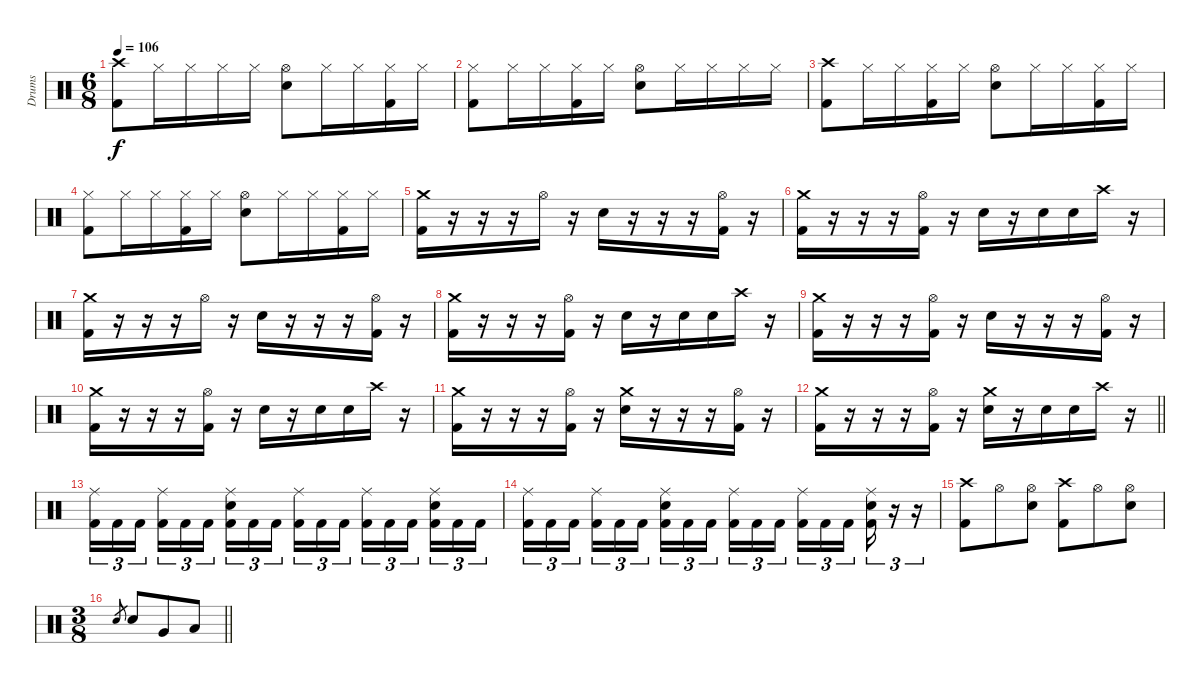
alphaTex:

\track ("Drums" "Drums") {instrument percussion}
\staff {score}
\articulation defaults
\ts (6 8)
\tempo 106
\clef neutral
\ks aminor
("Crash high (hit)" "Kick (hit) 2").8{dy f} "Hi-Hat (closed)".16 "Hi-Hat (closed)".16 "Hi-Hat (closed)".16 "Hi-Hat (closed)".16 ("Hi-Hat (open)" "Electric Snare (hit)").8 "Hi-Hat (closed)".16 "Hi-Hat (closed)".16 ("Hi-Hat (closed)" "Kick (hit) 2").16 "Hi-Hat (closed)".16 |
("Hi-Hat (closed)" "Kick (hit) 2").8 "Hi-Hat (closed)".16 "Hi-Hat (closed)".16 ("Hi-Hat (closed)" "Kick (hit) 2").16 "Hi-Hat (closed)".16 ("Hi-Hat (open)" "Electric Snare (hit)").8 "Hi-Hat (closed)".16 "Hi-Hat (closed)".16 "Hi-Hat (closed)".16 "Hi-Hat (closed)".16 |
("Crash high (hit)" "Kick (hit) 2").8 "Hi-Hat (closed)".16 "Hi-Hat (closed)".16 ("Hi-Hat (closed)" "Kick (hit) 2").16 "Hi-Hat (closed)".16 ("Hi-Hat (open)" "Electric Snare (hit)").8 "Hi-Hat (closed)".16 "Hi-Hat (closed)".16 ("Hi-Hat (closed)" "Kick (hit) 2").16 "Hi-Hat (closed)".16 |
("Hi-Hat (closed)" "Kick (hit) 2").8 "Hi-Hat (closed)".16 "Hi-Hat (closed)".16 ("Hi-Hat (closed)" "Kick (hit) 2").16 "Hi-Hat (closed)".16 ("Hi-Hat (open)" "Electric Snare (hit)").8 "Hi-Hat (closed)".16 "Hi-Hat (closed)".16 ("Hi-Hat (closed)" "Kick (hit) 2").16 "Hi-Hat (closed)".16 |
\section ("" "")
("Crash medium (hit)" "Kick (hit) 2").16 r.16 r.16 r.16 "Hi-Hat (open)".16 r.16 "Electric Snare (hit)".16 r.16 r.16 r.16 ("Hi-Hat (open)" "Kick (hit) 2").16 r.16 |
("Crash medium (hit)" "Kick (hit) 2").16 r.16 r.16 r.16 ("Hi-Hat (open)" "Kick (hit) 2").16 r.16 "Electric Snare (hit)".16 r.16 "Electric Snare (hit)".16 "Electric Snare (hit)".16 "Crash high (hit)".16 r.16 |
("Crash medium (hit)" "Kick (hit) 2").16 r.16 r.16 r.16 "Hi-Hat (open)".16 r.16 "Electric Snare (hit)".16 r.16 r.16 r.16 ("Hi-Hat (open)" "Kick (hit) 2").16 r.16 |
("Crash medium (hit)" "Kick (hit) 2").16 r.16 r.16 r.16 ("Hi-Hat (open)" "Kick (hit) 2").16 r.16 "Electric Snare (hit)".16 r.16 "Electric Snare (hit)".16 "Electric Snare (hit)".16 "Crash high (hit)".16 r.16 |
\section ("" "")
("Crash medium (hit)" "Kick (hit) 2").16 r.16 r.16 r.16 ("Hi-Hat (open)" "Kick (hit) 2").16 r.16 "Electric Snare (hit)".16 r.16 r.16 r.16 ("Hi-Hat (open)" "Kick (hit) 2").16 r.16 |
("Crash medium (hit)" "Kick (hit) 2").16 r.16 r.16 r.16 ("Hi-Hat (open)" "Kick (hit) 2").16 r.16 "Electric Snare (hit)".16 r.16 "Electric Snare (hit)".16 "Electric Snare (hit)".16 "Crash high (hit)".16 r.16 |
("Crash medium (hit)" "Kick (hit) 2").16 r.16 r.16 r.16 ("Hi-Hat (open)" "Kick (hit) 2").16 r.16 ("Crash medium (hit)" "Electric Snare (hit)").16 r.16 r.16 r.16 ("Hi-Hat (open)" "Kick (hit) 2").16 r.16 |
\barLineRight lightlight
("Crash medium (hit)" "Kick (hit) 2").16 r.16 r.16 r.16 ("Hi-Hat (open)" "Kick (hit) 2").16 r.16 ("Crash medium (hit)" "Electric Snare (hit)").16 r.16 "Electric Snare (hit)".16 "Electric Snare (hit)".16 "Crash high (hit)".16 r.16 |
\section ("" "")
("Ride (middle)" "Kick (hit) 2").16{tu (3 2)} "Kick (hit) 2".16{tu (3 2)} "Kick (hit) 2".16{tu (3 2)} ("Ride (middle)" "Kick (hit) 2").16{tu (3 2)} "Kick (hit) 2".16{tu (3 2)} "Kick (hit) 2".16{tu (3 2)} ("Ride (middle)" "Electric Snare (hit)" "Kick (hit) 2").16{tu (3 2)} "Kick (hit) 2".16{tu (3 2)} "Kick (hit) 2".16{tu (3 2)} ("Ride (middle)" "Kick (hit) 2").16{tu (3 2)} "Kick (hit) 2".16{tu (3 2)} "Kick (hit) 2".16{tu (3 2)} ("Ride (middle)" "Kick (hit) 2").16{tu (3 2)} "Kick (hit) 2".16{tu (3 2)} "Kick (hit) 2".16{tu (3 2)} ("Ride (middle)" "Electric Snare (hit)" "Kick (hit) 2").16{tu (3 2)} "Kick (hit) 2".16{tu (3 2)} "Kick (hit) 2".16{tu (3 2)} |
("Ride (middle)" "Kick (hit) 2").16{tu (3 2)} "Kick (hit) 2".16{tu (3 2)} "Kick (hit) 2".16{tu (3 2)} ("Ride (middle)" "Kick (hit) 2").16{tu (3 2)} "Kick (hit) 2".16{tu (3 2)} "Kick (hit) 2".16{tu (3 2)} ("Ride (middle)" "Electric Snare (hit)" "Kick (hit) 2").16{tu (3 2)} "Kick (hit) 2".16{tu (3 2)} "Kick (hit) 2".16{tu (3 2)} ("Ride (middle)" "Kick (hit) 2").16{tu (3 2)} "Kick (hit) 2".16{tu (3 2)} "Kick (hit) 2".16{tu (3 2)} ("Ride (middle)" "Kick (hit) 2").16{tu (3 2)} "Kick (hit) 2".16{tu (3 2)} "Kick (hit) 2".16{tu (3 2)} ("Ride (middle)" "Electric Snare (hit)" "Kick (hit) 2").16{tu (3 2)} r.16{tu (3 2)} r.16{tu (3 2)} |
("Crash high (hit)" "Kick (hit) 2").8 "Hi-Hat (open)".8 ("Hi-Hat (open)" "Electric Snare (hit)").8 ("Crash high (hit)" "Kick (hit) 2").8 "Hi-Hat (open)".8 ("Hi-Hat (open)" "Electric Snare (hit)").8 |
\ts (3 8)
\barLineRight lightlight "Electric Snare (hit)".8{gr} "Electric Snare (hit)".8 "Very Low Tom (hit)".8 "Low Floor Tom (hit)".8
